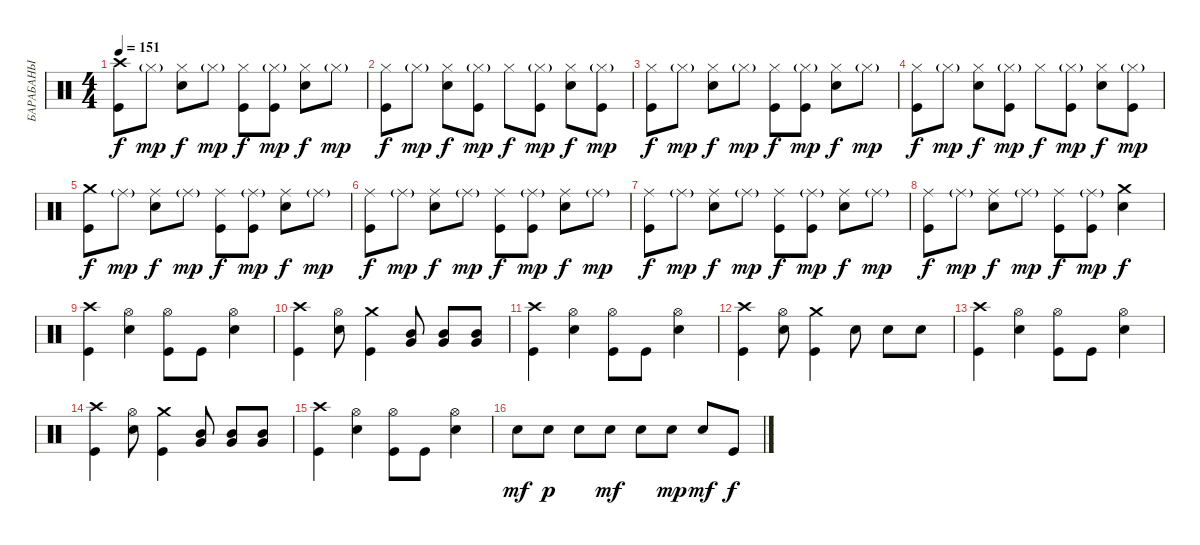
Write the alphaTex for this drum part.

\track ("БАРАБАНЫ" "БАРАБАНЫ") {instrument percussion}
\staff {score}
\articulation defaults
\ts (4 4)
\tempo 151
\clef neutral
\ks c
("Crash high (hit)" "Kick (hit)").8{dy f} "Hi-Hat (closed)"{g}.8{dy mp} ("Hi-Hat (closed)" "Electric Snare (hit)").8{dy f} "Hi-Hat (closed)"{g}.8{dy mp} ("Hi-Hat (closed)" "Kick (hit)").8{dy f} ("Hi-Hat (closed)"{g} "Kick (hit)").8{dy mp} ("Hi-Hat (closed)" "Electric Snare (hit)").8{dy f} "Hi-Hat (closed)"{g}.8{dy mp} |
("Hi-Hat (closed)" "Kick (hit)").8{dy f} "Hi-Hat (closed)"{g}.8{dy mp} ("Hi-Hat (closed)" "Electric Snare (hit)").8{dy f} ("Hi-Hat (closed)"{g} "Kick (hit)").8{dy mp} "Hi-Hat (closed)".8{dy f} ("Hi-Hat (closed)"{g} "Kick (hit)").8{dy mp} ("Hi-Hat (closed)" "Electric Snare (hit)").8{dy f} ("Hi-Hat (closed)"{g} "Kick (hit)").8{dy mp} |
("Hi-Hat (closed)" "Kick (hit)").8{dy f} "Hi-Hat (closed)"{g}.8{dy mp} ("Hi-Hat (closed)" "Electric Snare (hit)").8{dy f} "Hi-Hat (closed)"{g}.8{dy mp} ("Hi-Hat (closed)" "Kick (hit)").8{dy f} ("Hi-Hat (closed)"{g} "Kick (hit)").8{dy mp} ("Hi-Hat (closed)" "Electric Snare (hit)").8{dy f} "Hi-Hat (closed)"{g}.8{dy mp} |
("Hi-Hat (closed)" "Kick (hit)").8{dy f} "Hi-Hat (closed)"{g}.8{dy mp} ("Hi-Hat (closed)" "Electric Snare (hit)").8{dy f} ("Hi-Hat (closed)"{g} "Kick (hit)").8{dy mp} "Hi-Hat (closed)".8{dy f} ("Hi-Hat (closed)"{g} "Kick (hit)").8{dy mp} ("Hi-Hat (closed)" "Electric Snare (hit)").8{dy f} ("Hi-Hat (closed)"{g} "Kick (hit)").8{dy mp} |
("Crash medium (hit)" "Kick (hit)").8{dy f} "Ride (middle)"{g}.8{dy mp} ("Ride (middle)" "Electric Snare (hit)").8{dy f} "Ride (middle)"{g}.8{dy mp} ("Ride (middle)" "Kick (hit)").8{dy f} ("Ride (middle)"{g} "Kick (hit)").8{dy mp} ("Ride (middle)" "Electric Snare (hit)").8{dy f} "Ride (middle)"{g}.8{dy mp} |
("Ride (middle)" "Kick (hit)").8{dy f} "Ride (middle)"{g}.8{dy mp} ("Ride (middle)" "Electric Snare (hit)").8{dy f} "Ride (middle)"{g}.8{dy mp} ("Ride (middle)" "Kick (hit)").8{dy f} ("Ride (middle)"{g} "Kick (hit)").8{dy mp} ("Ride (middle)" "Electric Snare (hit)").8{dy f} "Ride (middle)"{g}.8{dy mp} |
("Ride (middle)" "Kick (hit)").8{dy f} "Ride (middle)"{g}.8{dy mp} ("Ride (middle)" "Electric Snare (hit)").8{dy f} "Ride (middle)"{g}.8{dy mp} ("Ride (middle)" "Kick (hit)").8{dy f} ("Ride (middle)"{g} "Kick (hit)").8{dy mp} ("Ride (middle)" "Electric Snare (hit)").8{dy f} "Ride (middle)"{g}.8{dy mp} |
("Ride (middle)" "Kick (hit)").8{dy f} "Ride (middle)"{g}.8{dy mp} ("Ride (middle)" "Electric Snare (hit)").8{dy f} "Ride (middle)"{g}.8{dy mp} ("Ride (middle)" "Kick (hit)").8{dy f} ("Ride (middle)"{g} "Kick (hit)").8{dy mp} ("Crash medium (hit)" "Electric Snare (hit)").4{dy f} |
("Crash high (hit)" "Kick (hit)").4 ("Hi-Hat (open)" "Electric Snare (hit)").4 ("Hi-Hat (open)" "Kick (hit)").8 "Kick (hit)".8 ("Hi-Hat (open)" "Electric Snare (hit)").4 |
("Crash high (hit)" "Kick (hit)").4 ("Hi-Hat (open)" "Electric Snare (hit)").8 ("Crash medium (hit)" "Kick (hit)").4 ("Very Low Tom (hit)" "Mid Tom (hit)").8 ("Very Low Tom (hit)" "Mid Tom (hit)").8 ("Very Low Tom (hit)" "Mid Tom (hit)").8 |
("Crash high (hit)" "Kick (hit)").4 ("Hi-Hat (open)" "Electric Snare (hit)").4 ("Hi-Hat (open)" "Kick (hit)").8 "Kick (hit)".8 ("Hi-Hat (open)" "Electric Snare (hit)").4 |
("Crash high (hit)" "Kick (hit)").4 ("Hi-Hat (open)" "Electric Snare (hit)").8 ("Crash medium (hit)" "Kick (hit)").4 "Electric Snare (hit)".8 "Electric Snare (hit)".8 "Electric Snare (hit)".8 |
("Crash high (hit)" "Kick (hit)").4 ("Hi-Hat (open)" "Electric Snare (hit)").4 ("Hi-Hat (open)" "Kick (hit)").8 "Kick (hit)".8 ("Hi-Hat (open)" "Electric Snare (hit)").4 |
("Crash high (hit)" "Kick (hit)").4 ("Hi-Hat (open)" "Electric Snare (hit)").8 ("Crash medium (hit)" "Kick (hit)").4 ("Very Low Tom (hit)" "Mid Tom (hit)").8 ("Very Low Tom (hit)" "Mid Tom (hit)").8 ("Very Low Tom (hit)" "Mid Tom (hit)").8 |
("Crash high (hit)" "Kick (hit)").4 ("Hi-Hat (open)" "Electric Snare (hit)").4 ("Hi-Hat (open)" "Kick (hit)").8 "Kick (hit)".8 ("Hi-Hat (open)" "Electric Snare (hit)").4 |
"Electric Snare (hit)".8{dy mf} "Electric Snare (hit)".8{dy p} "Electric Snare (hit)".8 "Electric Snare (hit)".8{dy mf} "Electric Snare (hit)".8 "Electric Snare (hit)".8{dy mp} "Electric Snare (hit)".8{dy mf} "Kick (hit)".8{dy f}
